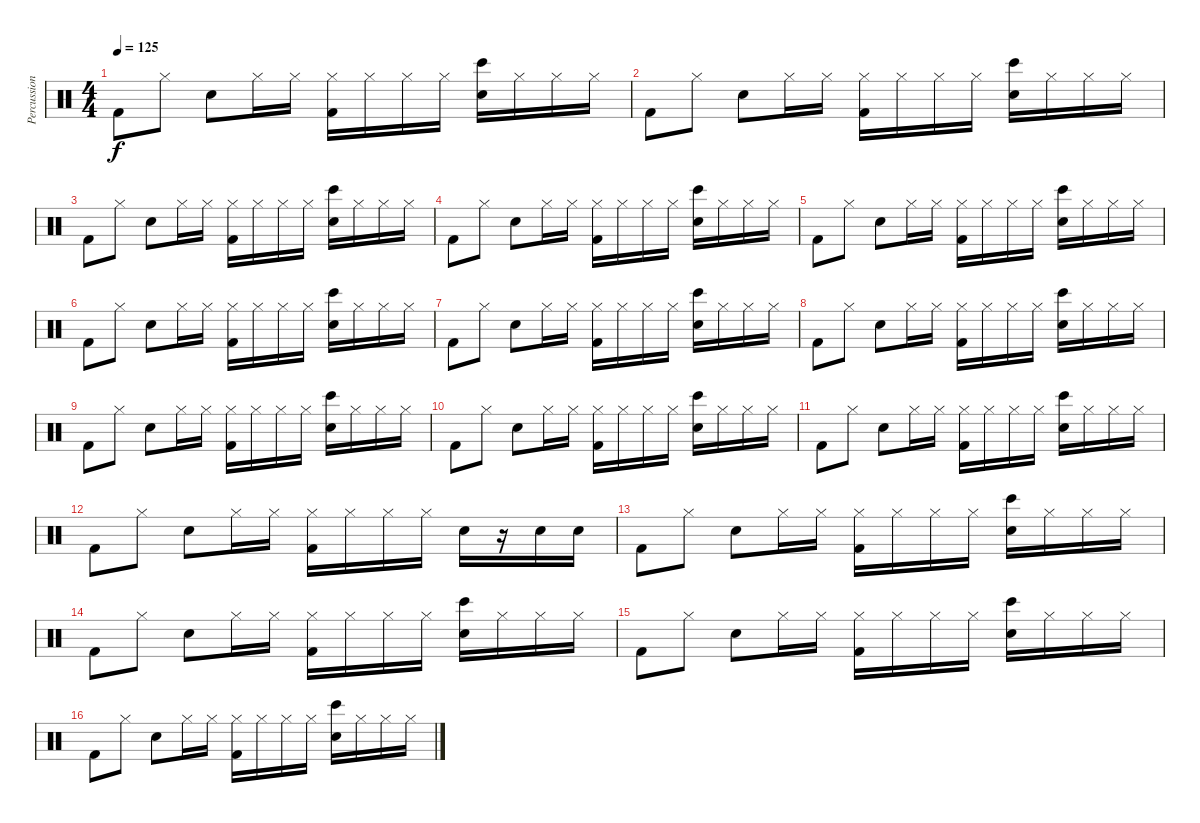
\track ("Percussion" "Percussion") {instrument percussion}
\staff {score}
\articulation defaults
\ts (4 4)
\tempo 125
\clef neutral
\ks c "Kick (hit) 2".8{dy f} "Hi-Hat (closed)".8 "Snare (hit) 2".8 "Hi-Hat (closed)".16 "Hi-Hat (closed)".16
("Hi-Hat (closed)" "Kick (hit) 2").16 "Hi-Hat (closed)".16 "Hi-Hat (closed)".16 "Hi-Hat (closed)".16 ("Bongo High (hit)" "Snare (hit) 2").16 "Hi-Hat (closed)".16 "Hi-Hat (closed)".16 "Hi-Hat (closed)".16 |
"Kick (hit) 2".8 "Hi-Hat (closed)".8 "Snare (hit) 2".8 "Hi-Hat (closed)".16 "Hi-Hat (closed)".16 ("Hi-Hat (closed)" "Kick (hit) 2").16 "Hi-Hat (closed)".16 "Hi-Hat (closed)".16 "Hi-Hat (closed)".16 ("Bongo High (hit)" "Snare (hit) 2").16 "Hi-Hat (closed)".16 "Hi-Hat (closed)".16 "Hi-Hat (closed)".16 |
"Kick (hit) 2".8 "Hi-Hat (closed)".8 "Snare (hit) 2".8 "Hi-Hat (closed)".16 "Hi-Hat (closed)".16 ("Hi-Hat (closed)" "Kick (hit) 2").16 "Hi-Hat (closed)".16 "Hi-Hat (closed)".16 "Hi-Hat (closed)".16 ("Bongo High (hit)" "Snare (hit) 2").16 "Hi-Hat (closed)".16 "Hi-Hat (closed)".16 "Hi-Hat (closed)".16 |
"Kick (hit) 2".8 "Hi-Hat (closed)".8 "Snare (hit) 2".8 "Hi-Hat (closed)".16 "Hi-Hat (closed)".16 ("Hi-Hat (closed)" "Kick (hit) 2").16 "Hi-Hat (closed)".16 "Hi-Hat (closed)".16 "Hi-Hat (closed)".16 ("Bongo High (hit)" "Snare (hit) 2").16 "Hi-Hat (closed)".16 "Hi-Hat (closed)".16 "Hi-Hat (closed)".16 |
"Kick (hit) 2".8 "Hi-Hat (closed)".8 "Snare (hit) 2".8 "Hi-Hat (closed)".16 "Hi-Hat (closed)".16 ("Hi-Hat (closed)" "Kick (hit) 2").16 "Hi-Hat (closed)".16 "Hi-Hat (closed)".16 "Hi-Hat (closed)".16 ("Bongo High (hit)" "Snare (hit) 2").16 "Hi-Hat (closed)".16 "Hi-Hat (closed)".16 "Hi-Hat (closed)".16 |
"Kick (hit) 2".8 "Hi-Hat (closed)".8 "Snare (hit) 2".8 "Hi-Hat (closed)".16 "Hi-Hat (closed)".16 ("Hi-Hat (closed)" "Kick (hit) 2").16 "Hi-Hat (closed)".16 "Hi-Hat (closed)".16 "Hi-Hat (closed)".16 ("Bongo High (hit)" "Snare (hit) 2").16 "Hi-Hat (closed)".16 "Hi-Hat (closed)".16 "Hi-Hat (closed)".16 |
"Kick (hit) 2".8 "Hi-Hat (closed)".8 "Snare (hit) 2".8 "Hi-Hat (closed)".16 "Hi-Hat (closed)".16 ("Hi-Hat (closed)" "Kick (hit) 2").16 "Hi-Hat (closed)".16 "Hi-Hat (closed)".16 "Hi-Hat (closed)".16 ("Bongo High (hit)" "Snare (hit) 2").16 "Hi-Hat (closed)".16 "Hi-Hat (closed)".16 "Hi-Hat (closed)".16 |
"Kick (hit) 2".8 "Hi-Hat (closed)".8 "Snare (hit) 2".8 "Hi-Hat (closed)".16 "Hi-Hat (closed)".16 ("Hi-Hat (closed)" "Kick (hit) 2").16 "Hi-Hat (closed)".16 "Hi-Hat (closed)".16 "Hi-Hat (closed)".16 ("Bongo High (hit)" "Snare (hit) 2").16 "Hi-Hat (closed)".16 "Hi-Hat (closed)".16 "Hi-Hat (closed)".16 |
"Kick (hit) 2".8 "Hi-Hat (closed)".8 "Snare (hit) 2".8 "Hi-Hat (closed)".16 "Hi-Hat (closed)".16 ("Hi-Hat (closed)" "Kick (hit) 2").16 "Hi-Hat (closed)".16 "Hi-Hat (closed)".16 "Hi-Hat (closed)".16 ("Bongo High (hit)" "Snare (hit) 2").16 "Hi-Hat (closed)".16 "Hi-Hat (closed)".16 "Hi-Hat (closed)".16 |
"Kick (hit) 2".8 "Hi-Hat (closed)".8 "Snare (hit) 2".8 "Hi-Hat (closed)".16 "Hi-Hat (closed)".16 ("Hi-Hat (closed)" "Kick (hit) 2").16 "Hi-Hat (closed)".16 "Hi-Hat (closed)".16 "Hi-Hat (closed)".16 ("Bongo High (hit)" "Snare (hit) 2").16 "Hi-Hat (closed)".16 "Hi-Hat (closed)".16 "Hi-Hat (closed)".16 |
"Kick (hit) 2".8 "Hi-Hat (closed)".8 "Snare (hit) 2".8 "Hi-Hat (closed)".16 "Hi-Hat (closed)".16 ("Hi-Hat (closed)" "Kick (hit) 2").16 "Hi-Hat (closed)".16 "Hi-Hat (closed)".16 "Hi-Hat (closed)".16 ("Bongo High (hit)" "Snare (hit) 2").16 "Hi-Hat (closed)".16 "Hi-Hat (closed)".16 "Hi-Hat (closed)".16 |
"Kick (hit) 2".8 "Hi-Hat (closed)".8 "Snare (hit) 2".8 "Hi-Hat (closed)".16 "Hi-Hat (closed)".16 ("Hi-Hat (closed)" "Kick (hit) 2").16 "Hi-Hat (closed)".16 "Hi-Hat (closed)".16 "Hi-Hat (closed)".16 "Snare (hit) 2".16 r.16 "Snare (hit) 2".16 "Snare (hit) 2".16 |
"Kick (hit) 2".8 "Hi-Hat (closed)".8 "Snare (hit) 2".8 "Hi-Hat (closed)".16 "Hi-Hat (closed)".16 ("Hi-Hat (closed)" "Kick (hit) 2").16 "Hi-Hat (closed)".16 "Hi-Hat (closed)".16 "Hi-Hat (closed)".16 ("Bongo High (hit)" "Snare (hit) 2").16 "Hi-Hat (closed)".16 "Hi-Hat (closed)".16 "Hi-Hat (closed)".16 |
"Kick (hit) 2".8 "Hi-Hat (closed)".8 "Snare (hit) 2".8 "Hi-Hat (closed)".16 "Hi-Hat (closed)".16 ("Hi-Hat (closed)" "Kick (hit) 2").16 "Hi-Hat (closed)".16 "Hi-Hat (closed)".16 "Hi-Hat (closed)".16 ("Bongo High (hit)" "Snare (hit) 2").16 "Hi-Hat (closed)".16 "Hi-Hat (closed)".16 "Hi-Hat (closed)".16 |
"Kick (hit) 2".8 "Hi-Hat (closed)".8 "Snare (hit) 2".8 "Hi-Hat (closed)".16 "Hi-Hat (closed)".16 ("Hi-Hat (closed)" "Kick (hit) 2").16 "Hi-Hat (closed)".16 "Hi-Hat (closed)".16 "Hi-Hat (closed)".16 ("Bongo High (hit)" "Snare (hit) 2").16 "Hi-Hat (closed)".16 "Hi-Hat (closed)".16 "Hi-Hat (closed)".16 |
"Kick (hit) 2".8 "Hi-Hat (closed)".8 "Snare (hit) 2".8 "Hi-Hat (closed)".16 "Hi-Hat (closed)".16 ("Hi-Hat (closed)" "Kick (hit) 2").16 "Hi-Hat (closed)".16 "Hi-Hat (closed)".16 "Hi-Hat (closed)".16 ("Bongo High (hit)" "Snare (hit) 2").16 "Hi-Hat (closed)".16 "Hi-Hat (closed)".16 "Hi-Hat (closed)".16
